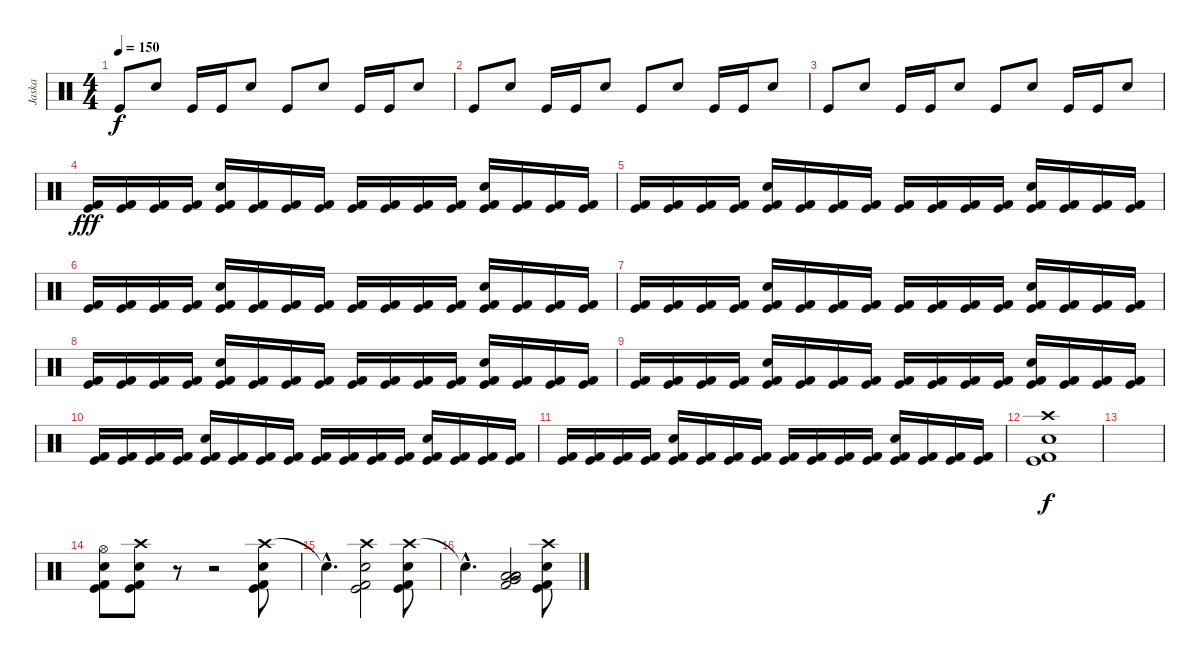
\track ("Jaska" "Jaska") {instrument percussion}
\staff {score}
\articulation defaults
\ts (4 4)
\tempo 150
\clef neutral
\ks c "Kick (hit)".8{dy f} "Electric Snare (hit)".8 "Kick (hit)".16 "Kick (hit)".16 "Electric Snare (hit)".8 "Kick (hit)".8 "Electric Snare (hit)".8 "Kick (hit)".16 "Kick (hit)".16 "Electric Snare (hit)".8
|
"Kick (hit)".8 "Electric Snare (hit)".8 "Kick (hit)".16 "Kick (hit)".16 "Electric Snare (hit)".8 "Kick (hit)".8 "Electric Snare (hit)".8 "Kick (hit)".16 "Kick (hit)".16 "Electric Snare (hit)".8 |
"Kick (hit)".8 "Electric Snare (hit)".8 "Kick (hit)".16 "Kick (hit)".16 "Electric Snare (hit)".8 "Kick (hit)".8 "Electric Snare (hit)".8 "Kick (hit)".16 "Kick (hit)".16 "Electric Snare (hit)".8 |
("Kick (hit)" "Kick (hit) 2").16{dy fff} ("Kick (hit)" "Kick (hit) 2").16 ("Kick (hit)" "Kick (hit) 2").16 ("Kick (hit)" "Kick (hit) 2").16 ("Snare (hit) 2" "Kick (hit)" "Kick (hit) 2").16 ("Kick (hit)" "Kick (hit) 2").16 ("Kick (hit)" "Kick (hit) 2").16 ("Kick (hit)" "Kick (hit) 2").16 ("Kick (hit)" "Kick (hit) 2").16 ("Kick (hit)" "Kick (hit) 2").16 ("Kick (hit)" "Kick (hit) 2").16 ("Kick (hit)" "Kick (hit) 2").16 ("Snare (hit) 2" "Kick (hit)" "Kick (hit) 2").16 ("Kick (hit)" "Kick (hit) 2").16 ("Kick (hit)" "Kick (hit) 2").16 ("Kick (hit)" "Kick (hit) 2").16 |
("Kick (hit)" "Kick (hit) 2").16 ("Kick (hit)" "Kick (hit) 2").16 ("Kick (hit)" "Kick (hit) 2").16 ("Kick (hit)" "Kick (hit) 2").16 ("Snare (hit) 2" "Kick (hit)" "Kick (hit) 2").16 ("Kick (hit)" "Kick (hit) 2").16 ("Kick (hit)" "Kick (hit) 2").16 ("Kick (hit)" "Kick (hit) 2").16 ("Kick (hit)" "Kick (hit) 2").16 ("Kick (hit)" "Kick (hit) 2").16 ("Kick (hit)" "Kick (hit) 2").16 ("Kick (hit)" "Kick (hit) 2").16 ("Snare (hit) 2" "Kick (hit)" "Kick (hit) 2").16 ("Kick (hit)" "Kick (hit) 2").16 ("Kick (hit)" "Kick (hit) 2").16 ("Kick (hit)" "Kick (hit) 2").16 |
("Kick (hit)" "Kick (hit) 2").16 ("Kick (hit)" "Kick (hit) 2").16 ("Kick (hit)" "Kick (hit) 2").16 ("Kick (hit)" "Kick (hit) 2").16 ("Snare (hit) 2" "Kick (hit)" "Kick (hit) 2").16 ("Kick (hit)" "Kick (hit) 2").16 ("Kick (hit)" "Kick (hit) 2").16 ("Kick (hit)" "Kick (hit) 2").16 ("Kick (hit)" "Kick (hit) 2").16 ("Kick (hit)" "Kick (hit) 2").16 ("Kick (hit)" "Kick (hit) 2").16 ("Kick (hit)" "Kick (hit) 2").16 ("Snare (hit) 2" "Kick (hit)" "Kick (hit) 2").16 ("Kick (hit)" "Kick (hit) 2").16 ("Kick (hit)" "Kick (hit) 2").16 ("Kick (hit)" "Kick (hit) 2").16 |
("Kick (hit)" "Kick (hit) 2").16 ("Kick (hit)" "Kick (hit) 2").16 ("Kick (hit)" "Kick (hit) 2").16 ("Kick (hit)" "Kick (hit) 2").16 ("Snare (hit) 2" "Kick (hit)" "Kick (hit) 2").16 ("Kick (hit)" "Kick (hit) 2").16 ("Kick (hit)" "Kick (hit) 2").16 ("Kick (hit)" "Kick (hit) 2").16 ("Kick (hit)" "Kick (hit) 2").16 ("Kick (hit)" "Kick (hit) 2").16 ("Kick (hit)" "Kick (hit) 2").16 ("Kick (hit)" "Kick (hit) 2").16 ("Snare (hit) 2" "Kick (hit)" "Kick (hit) 2").16 ("Kick (hit)" "Kick (hit) 2").16 ("Kick (hit)" "Kick (hit) 2").16 ("Kick (hit)" "Kick (hit) 2").16 |
("Kick (hit)" "Kick (hit) 2").16 ("Kick (hit)" "Kick (hit) 2").16 ("Kick (hit)" "Kick (hit) 2").16 ("Kick (hit)" "Kick (hit) 2").16 ("Snare (hit) 2" "Kick (hit)" "Kick (hit) 2").16 ("Kick (hit)" "Kick (hit) 2").16 ("Kick (hit)" "Kick (hit) 2").16 ("Kick (hit)" "Kick (hit) 2").16 ("Kick (hit)" "Kick (hit) 2").16 ("Kick (hit)" "Kick (hit) 2").16 ("Kick (hit)" "Kick (hit) 2").16 ("Kick (hit)" "Kick (hit) 2").16 ("Snare (hit) 2" "Kick (hit)" "Kick (hit) 2").16 ("Kick (hit)" "Kick (hit) 2").16 ("Kick (hit)" "Kick (hit) 2").16 ("Kick (hit)" "Kick (hit) 2").16 |
("Kick (hit)" "Kick (hit) 2").16 ("Kick (hit)" "Kick (hit) 2").16 ("Kick (hit)" "Kick (hit) 2").16 ("Kick (hit)" "Kick (hit) 2").16 ("Snare (hit) 2" "Kick (hit)" "Kick (hit) 2").16 ("Kick (hit)" "Kick (hit) 2").16 ("Kick (hit)" "Kick (hit) 2").16 ("Kick (hit)" "Kick (hit) 2").16 ("Kick (hit)" "Kick (hit) 2").16 ("Kick (hit)" "Kick (hit) 2").16 ("Kick (hit)" "Kick (hit) 2").16 ("Kick (hit)" "Kick (hit) 2").16 ("Snare (hit) 2" "Kick (hit)" "Kick (hit) 2").16 ("Kick (hit)" "Kick (hit) 2").16 ("Kick (hit)" "Kick (hit) 2").16 ("Kick (hit)" "Kick (hit) 2").16 |
("Kick (hit)" "Kick (hit) 2").16 ("Kick (hit)" "Kick (hit) 2").16 ("Kick (hit)" "Kick (hit) 2").16 ("Kick (hit)" "Kick (hit) 2").16 ("Snare (hit) 2" "Kick (hit)" "Kick (hit) 2").16 ("Kick (hit)" "Kick (hit) 2").16 ("Kick (hit)" "Kick (hit) 2").16 ("Kick (hit)" "Kick (hit) 2").16 ("Kick (hit)" "Kick (hit) 2").16 ("Kick (hit)" "Kick (hit) 2").16 ("Kick (hit)" "Kick (hit) 2").16 ("Kick (hit)" "Kick (hit) 2").16 ("Snare (hit) 2" "Kick (hit)" "Kick (hit) 2").16 ("Kick (hit)" "Kick (hit) 2").16 ("Kick (hit)" "Kick (hit) 2").16 ("Kick (hit)" "Kick (hit) 2").16 |
("Kick (hit)" "Kick (hit) 2").16 ("Kick (hit)" "Kick (hit) 2").16 ("Kick (hit)" "Kick (hit) 2").16 ("Kick (hit)" "Kick (hit) 2").16 ("Snare (hit) 2" "Kick (hit)" "Kick (hit) 2").16 ("Kick (hit)" "Kick (hit) 2").16 ("Kick (hit)" "Kick (hit) 2").16 ("Kick (hit)" "Kick (hit) 2").16 ("Kick (hit)" "Kick (hit) 2").16 ("Kick (hit)" "Kick (hit) 2").16 ("Kick (hit)" "Kick (hit) 2").16 ("Kick (hit)" "Kick (hit) 2").16 ("Snare (hit) 2" "Kick (hit)" "Kick (hit) 2").16 ("Kick (hit)" "Kick (hit) 2").16 ("Kick (hit)" "Kick (hit) 2").16 ("Kick (hit)" "Kick (hit) 2").16 |
("Crash high (hit)" "Snare (hit) 2" "Kick (hit)" "Kick (hit) 2").1{dy f} |
|
("Hi-Hat (open)" "Snare (hit) 2" "Kick (hit)" "Kick (hit) 2").8 ("Crash high (hit)" "Snare (hit) 2" "Kick (hit)" "Kick (hit) 2").8 r.8 r.2 ("Crash high (hit)" "Snare (hit) 2" "Kick (hit)" "Kick (hit) 2").8 |
"Snare (hit)"{hac t}.4{d} ("Crash high (hit)" "Snare (hit) 2" "Kick (hit)" "Kick (hit) 2").2 ("Crash high (hit)" "Snare (hit) 2" "Kick (hit)" "Kick (hit) 2").8 |
"Snare (hit)"{hac t}.4{d} ("Very Low Tom (hit)" "Low Tom (hit)" "Low Floor Tom (hit)" "Low Floor Tom (hit)" "Kick (hit) 2").2 ("Crash high (hit)" "Snare (hit) 2" "Kick (hit)" "Kick (hit) 2").8
